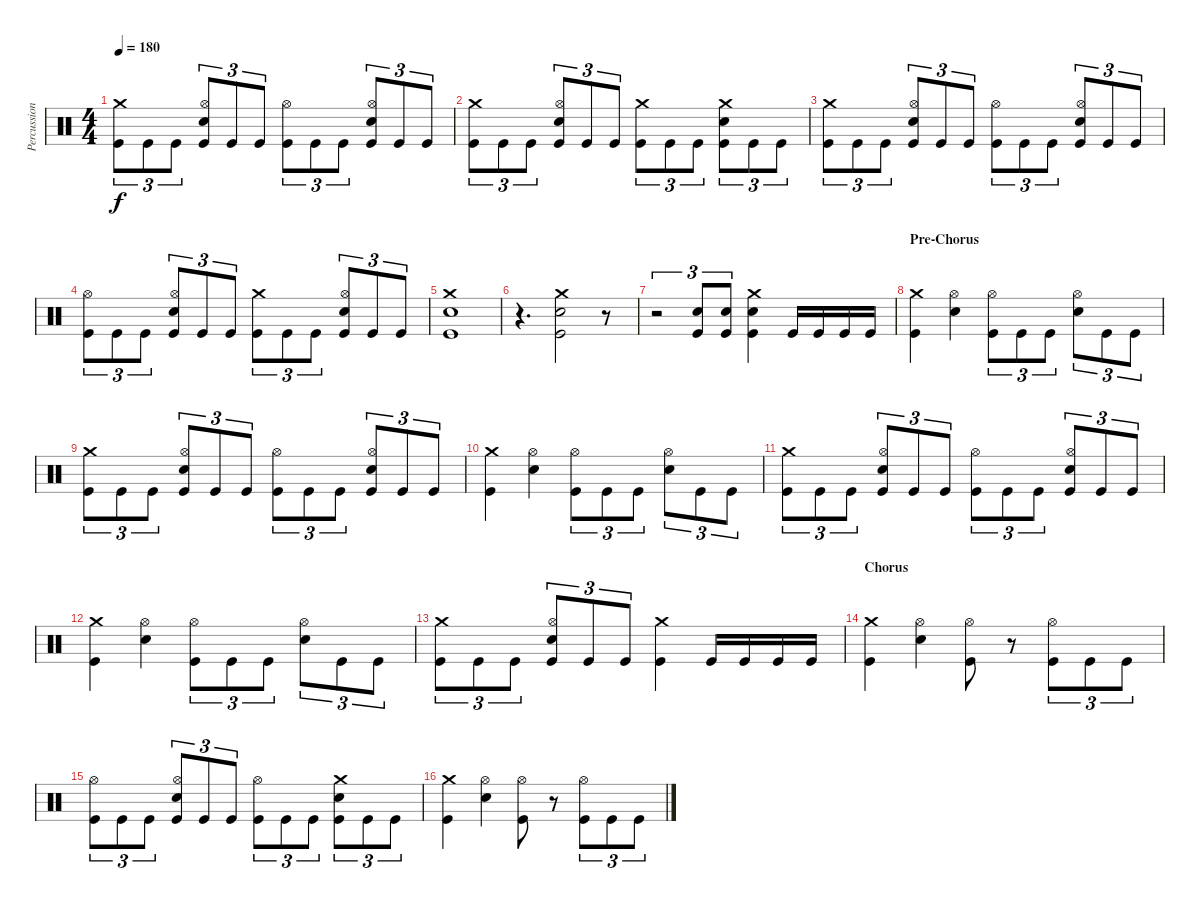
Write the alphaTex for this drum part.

\track ("Percussion" "Percussion") {instrument percussion}
\staff {score}
\articulation defaults
\ts (4 4)
\tempo 180
\clef neutral
\ks c
("Crash medium (hit)" "Kick (hit)").8{tu (3 2) dy f} "Kick (hit)".8{tu (3 2)} "Kick (hit)".8{tu (3 2)} ("Hi-Hat (open)" "Snare (hit) 2" "Kick (hit)").8{tu (3 2)} "Kick (hit)".8{tu (3 2)} "Kick (hit)".8{tu (3 2)} ("Hi-Hat (open)" "Kick (hit)").8{tu (3 2)} "Kick (hit)".8{tu (3 2)} "Kick (hit)".8{tu (3 2)} ("Hi-Hat (open)" "Snare (hit) 2" "Kick (hit)").8{tu (3 2)} "Kick (hit)".8{tu (3 2)} "Kick (hit)".8{tu (3 2)} |
("Crash medium (hit)" "Kick (hit)").8{tu (3 2)} "Kick (hit)".8{tu (3 2)} "Kick (hit)".8{tu (3 2)} ("Hi-Hat (open)" "Snare (hit) 2" "Kick (hit)").8{tu (3 2)} "Kick (hit)".8{tu (3 2)} "Kick (hit)".8{tu (3 2)} ("Crash medium (hit)" "Kick (hit)").8{tu (3 2)} "Kick (hit)".8{tu (3 2)} "Kick (hit)".8{tu (3 2)} ("Crash medium (hit)" "Snare (hit) 2" "Kick (hit)").8{tu (3 2)} "Kick (hit)".8{tu (3 2)} "Kick (hit)".8{tu (3 2)} |
("Crash medium (hit)" "Kick (hit)").8{tu (3 2)} "Kick (hit)".8{tu (3 2)} "Kick (hit)".8{tu (3 2)} ("Hi-Hat (open)" "Snare (hit) 2" "Kick (hit)").8{tu (3 2)} "Kick (hit)".8{tu (3 2)} "Kick (hit)".8{tu (3 2)} ("Hi-Hat (open)" "Kick (hit)").8{tu (3 2)} "Kick (hit)".8{tu (3 2)} "Kick (hit)".8{tu (3 2)} ("Hi-Hat (open)" "Snare (hit) 2" "Kick (hit)").8{tu (3 2)} "Kick (hit)".8{tu (3 2)} "Kick (hit)".8{tu (3 2)} |
("Hi-Hat (open)" "Kick (hit)").8{tu (3 2)} "Kick (hit)".8{tu (3 2)} "Kick (hit)".8{tu (3 2)} ("Hi-Hat (open)" "Snare (hit) 2" "Kick (hit)").8{tu (3 2)} "Kick (hit)".8{tu (3 2)} "Kick (hit)".8{tu (3 2)} ("Crash medium (hit)" "Kick (hit)").8{tu (3 2)} "Kick (hit)".8{tu (3 2)} "Kick (hit)".8{tu (3 2)} ("Hi-Hat (open)" "Snare (hit) 2" "Kick (hit)").8{tu (3 2)} "Kick (hit)".8{tu (3 2)} "Kick (hit)".8{tu (3 2)} |
("Crash medium (hit)" "Snare (hit) 2" "Kick (hit)").1 |
r.4{d} ("Crash medium (hit)" "Snare (hit) 2" "Kick (hit)").2 r.8 |
r.2{tu (3 2)} ("Snare (hit) 2" "Kick (hit)").8{tu (3 2)} ("Snare (hit) 2" "Kick (hit)").8{tu (3 2)} ("Crash medium (hit)" "Snare (hit) 2" "Kick (hit)").4 "Kick (hit)".16 "Kick (hit)".16 "Kick (hit)".16 "Kick (hit)".16 |
\section ("" "Pre-Chorus")
("Crash medium (hit)" "Kick (hit)").4 ("Hi-Hat (open)" "Electric Snare (hit)").4 ("Hi-Hat (open)" "Kick (hit)").8{tu (3 2)} "Kick (hit)".8{tu (3 2)} "Kick (hit)".8{tu (3 2)} ("Hi-Hat (open)" "Electric Snare (hit)").8{tu (3 2)} "Kick (hit)".8{tu (3 2)} "Kick (hit)".8{tu (3 2)} |
("Crash medium (hit)" "Kick (hit)").8{tu (3 2)} "Kick (hit)".8{tu (3 2)} "Kick (hit)".8{tu (3 2)} ("Hi-Hat (open)" "Electric Snare (hit)" "Kick (hit)").8{tu (3 2)} "Kick (hit)".8{tu (3 2)} "Kick (hit)".8{tu (3 2)} ("Hi-Hat (open)" "Kick (hit)").8{tu (3 2)} "Kick (hit)".8{tu (3 2)} "Kick (hit)".8{tu (3 2)} ("Hi-Hat (open)" "Electric Snare (hit)" "Kick (hit)").8{tu (3 2)} "Kick (hit)".8{tu (3 2)} "Kick (hit)".8{tu (3 2)} |
("Crash medium (hit)" "Kick (hit)").4 ("Hi-Hat (open)" "Electric Snare (hit)").4 ("Hi-Hat (open)" "Kick (hit)").8{tu (3 2)} "Kick (hit)".8{tu (3 2)} "Kick (hit)".8{tu (3 2)} ("Hi-Hat (open)" "Electric Snare (hit)").8{tu (3 2)} "Kick (hit)".8{tu (3 2)} "Kick (hit)".8{tu (3 2)} |
("Crash medium (hit)" "Kick (hit)").8{tu (3 2)} "Kick (hit)".8{tu (3 2)} "Kick (hit)".8{tu (3 2)} ("Hi-Hat (open)" "Electric Snare (hit)" "Kick (hit)").8{tu (3 2)} "Kick (hit)".8{tu (3 2)} "Kick (hit)".8{tu (3 2)} ("Hi-Hat (open)" "Kick (hit)").8{tu (3 2)} "Kick (hit)".8{tu (3 2)} "Kick (hit)".8{tu (3 2)} ("Hi-Hat (open)" "Electric Snare (hit)" "Kick (hit)").8{tu (3 2)} "Kick (hit)".8{tu (3 2)} "Kick (hit)".8{tu (3 2)} |
("Crash medium (hit)" "Kick (hit)").4 ("Hi-Hat (open)" "Electric Snare (hit)").4 ("Hi-Hat (open)" "Kick (hit)").8{tu (3 2)} "Kick (hit)".8{tu (3 2)} "Kick (hit)".8{tu (3 2)} ("Hi-Hat (open)" "Electric Snare (hit)").8{tu (3 2)} "Kick (hit)".8{tu (3 2)} "Kick (hit)".8{tu (3 2)} |
("Crash medium (hit)" "Kick (hit)").8{tu (3 2)} "Kick (hit)".8{tu (3 2)} "Kick (hit)".8{tu (3 2)} ("Hi-Hat (open)" "Electric Snare (hit)" "Kick (hit)").8{tu (3 2)} "Kick (hit)".8{tu (3 2)} "Kick (hit)".8{tu (3 2)} ("Crash medium (hit)" "Kick (hit)").4 "Kick (hit)".16 "Kick (hit)".16 "Kick (hit)".16 "Kick (hit)".16 |
\section ("" "Chorus")
("Crash medium (hit)" "Kick (hit)").4 ("Hi-Hat (open)" "Electric Snare (hit)").4 ("Hi-Hat (open)" "Kick (hit)").8 r.8 ("Hi-Hat (open)" "Kick (hit)").8{tu (3 2)} "Kick (hit)".8{tu (3 2)} "Kick (hit)".8{tu (3 2)} |
("Hi-Hat (open)" "Kick (hit)").8{tu (3 2)} "Kick (hit)".8{tu (3 2)} "Kick (hit)".8{tu (3 2)} ("Hi-Hat (open)" "Electric Snare (hit)" "Kick (hit)").8{tu (3 2)} "Kick (hit)".8{tu (3 2)} "Kick (hit)".8{tu (3 2)} ("Hi-Hat (open)" "Kick (hit)").8{tu (3 2)} "Kick (hit)".8{tu (3 2)} "Kick (hit)".8{tu (3 2)} ("Crash medium (hit)" "Electric Snare (hit)" "Kick (hit)").8{tu (3 2)} "Kick (hit)".8{tu (3 2)} "Kick (hit)".8{tu (3 2)} |
("Crash medium (hit)" "Kick (hit)").4 ("Hi-Hat (open)" "Electric Snare (hit)").4 ("Hi-Hat (open)" "Kick (hit)").8 r.8 ("Hi-Hat (open)" "Kick (hit)").8{tu (3 2)} "Kick (hit)".8{tu (3 2)} "Kick (hit)".8{tu (3 2)}
